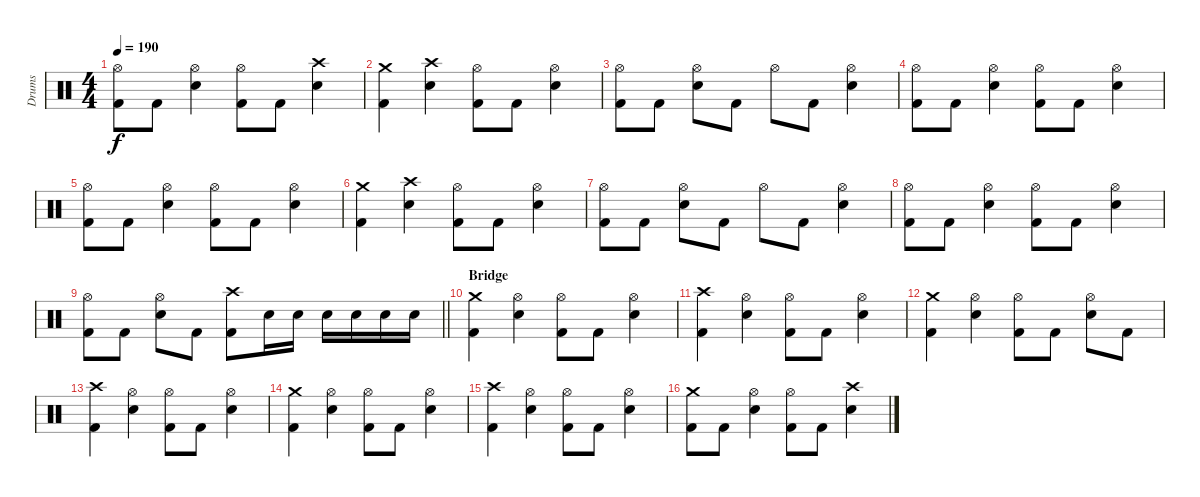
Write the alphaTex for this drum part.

\track ("Drums" "Drums") {instrument percussion}
\staff {score}
\articulation defaults
\ts (4 4)
\tempo 190
\clef neutral
\ks c
("Hi-Hat (open)" "Kick (hit) 2").8{dy f} "Kick (hit) 2".8 ("Hi-Hat (open)" "Electric Snare (hit)").4 ("Hi-Hat (open)" "Kick (hit) 2").8 "Kick (hit) 2".8 ("Crash high (hit)" "Electric Snare (hit)").4 |
("Crash medium (hit)" "Kick (hit) 2").4 ("Crash high (hit)" "Electric Snare (hit)").4 ("Hi-Hat (open)" "Kick (hit) 2").8 "Kick (hit) 2".8 ("Hi-Hat (open)" "Electric Snare (hit)").4 |
("Hi-Hat (open)" "Kick (hit) 2").8 "Kick (hit) 2".8 ("Hi-Hat (open)" "Electric Snare (hit)").8 "Kick (hit) 2".8 "Hi-Hat (open)".8 "Kick (hit) 2".8 ("Hi-Hat (open)" "Electric Snare (hit)").4 |
("Hi-Hat (open)" "Kick (hit) 2").8 "Kick (hit) 2".8 ("Hi-Hat (open)" "Electric Snare (hit)").4 ("Hi-Hat (open)" "Kick (hit) 2").8 "Kick (hit) 2".8 ("Hi-Hat (open)" "Electric Snare (hit)").4 |
("Hi-Hat (open)" "Kick (hit) 2").8 "Kick (hit) 2".8 ("Hi-Hat (open)" "Electric Snare (hit)").4 ("Hi-Hat (open)" "Kick (hit) 2").8 "Kick (hit) 2".8 ("Hi-Hat (open)" "Electric Snare (hit)").4 |
("Crash medium (hit)" "Kick (hit) 2").4 ("Crash high (hit)" "Electric Snare (hit)").4 ("Hi-Hat (open)" "Kick (hit) 2").8 "Kick (hit) 2".8 ("Hi-Hat (open)" "Electric Snare (hit)").4 |
("Hi-Hat (open)" "Kick (hit) 2").8 "Kick (hit) 2".8 ("Hi-Hat (open)" "Electric Snare (hit)").8 "Kick (hit) 2".8 "Hi-Hat (open)".8 "Kick (hit) 2".8 ("Hi-Hat (open)" "Electric Snare (hit)").4 |
("Hi-Hat (open)" "Kick (hit) 2").8 "Kick (hit) 2".8 ("Hi-Hat (open)" "Electric Snare (hit)").4 ("Hi-Hat (open)" "Kick (hit) 2").8 "Kick (hit) 2".8 ("Hi-Hat (open)" "Electric Snare (hit)").4 |
\barLineRight lightlight
("Hi-Hat (open)" "Kick (hit) 2").8 "Kick (hit) 2".8 ("Hi-Hat (open)" "Electric Snare (hit)").8 "Kick (hit) 2".8 ("Crash high (hit)" "Kick (hit) 2").8 "Electric Snare (hit)".16 "Electric Snare (hit)".16 "Electric Snare (hit)".16 "Electric Snare (hit)".16 "Electric Snare (hit)".16 "Electric Snare (hit)".16 |
\section ("" "Bridge")
("Crash medium (hit)" "Kick (hit) 2").4 ("Hi-Hat (open)" "Electric Snare (hit)").4 ("Hi-Hat (open)" "Kick (hit) 2").8 "Kick (hit) 2".8 ("Hi-Hat (open)" "Electric Snare (hit)").4 |
("Crash high (hit)" "Kick (hit) 2").4 ("Hi-Hat (open)" "Electric Snare (hit)").4 ("Hi-Hat (open)" "Kick (hit) 2").8 "Kick (hit) 2".8 ("Hi-Hat (open)" "Electric Snare (hit)").4 |
("Crash medium (hit)" "Kick (hit) 2").4 ("Hi-Hat (open)" "Electric Snare (hit)").4 ("Hi-Hat (open)" "Kick (hit) 2").8 "Kick (hit) 2".8 ("Hi-Hat (open)" "Electric Snare (hit)").8 "Kick (hit) 2".8 |
("Crash high (hit)" "Kick (hit) 2").4 ("Hi-Hat (open)" "Electric Snare (hit)").4 ("Hi-Hat (open)" "Kick (hit) 2").8 "Kick (hit) 2".8 ("Hi-Hat (open)" "Electric Snare (hit)").4 |
("Crash medium (hit)" "Kick (hit) 2").4 ("Hi-Hat (open)" "Electric Snare (hit)").4 ("Hi-Hat (open)" "Kick (hit) 2").8 "Kick (hit) 2".8 ("Hi-Hat (open)" "Electric Snare (hit)").4 |
("Crash high (hit)" "Kick (hit) 2").4 ("Hi-Hat (open)" "Electric Snare (hit)").4 ("Hi-Hat (open)" "Kick (hit) 2").8 "Kick (hit) 2".8 ("Hi-Hat (open)" "Electric Snare (hit)").4 |
("Crash medium (hit)" "Kick (hit) 2").8 "Kick (hit) 2".8 ("Hi-Hat (open)" "Electric Snare (hit)").4 ("Hi-Hat (open)" "Kick (hit) 2").8 "Kick (hit) 2".8 ("Crash high (hit)" "Electric Snare (hit)").4
